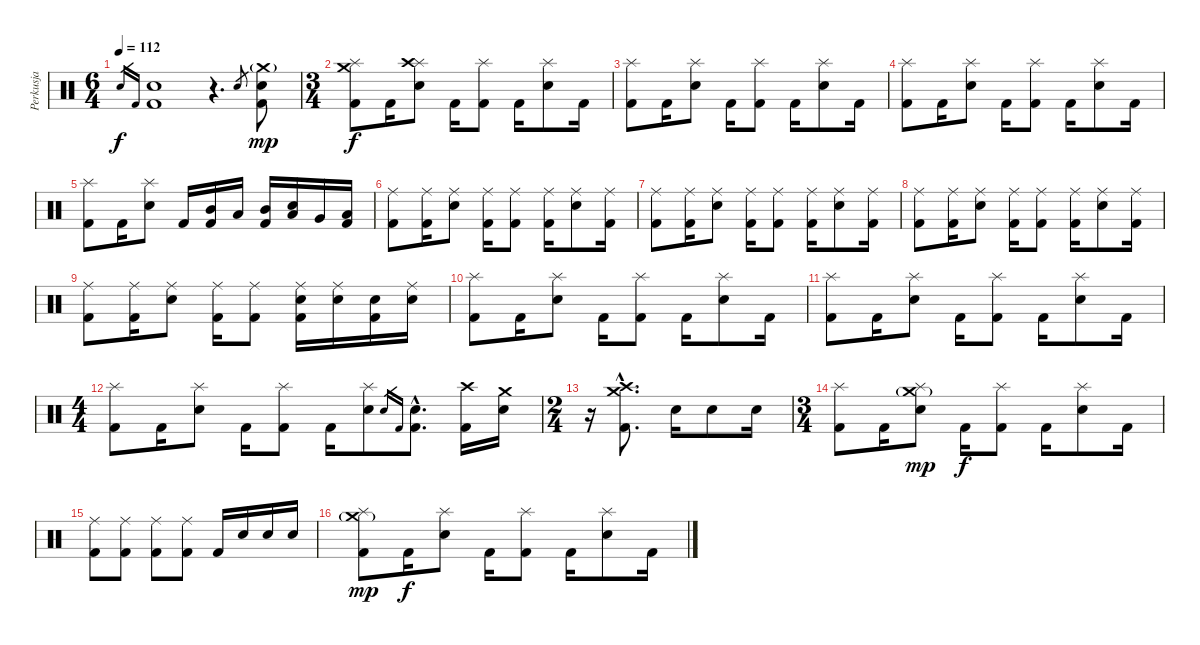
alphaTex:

\track ("Perkusja" "Perkusja") {instrument percussion}
\staff {score}
\articulation defaults
\ts (6 4)
\tempo 112
\clef neutral
\ks c "Electric Snare (hit)".16{gr dy f} "Kick (hit) 2".16{gr}
("Electric Snare (hit)" "Kick (hit) 2").1 r.4{d} "Electric Snare (hit)".8{gr} ("Crash medium (hit)"{g} "Electric Snare (hit)" "Kick (hit) 2").8{dy mp} |
\ts (3 4)
("Splash (hit)" "Crash medium (hit)" "Kick (hit) 2").8{dy f} "Kick (hit) 2".16 ("Splash (hit)" "Crash high (hit)" "Electric Snare (hit)").8 "Kick (hit) 2".16 ("Splash (hit)" "Kick (hit) 2").8 "Kick (hit) 2".16 ("Splash (hit)" "Electric Snare (hit)").8 "Kick (hit) 2".16 |
("Splash (hit)" "Kick (hit) 2").8 "Kick (hit) 2".16 ("Splash (hit)" "Electric Snare (hit)").8 "Kick (hit) 2".16 ("Splash (hit)" "Kick (hit) 2").8 "Kick (hit) 2".16 ("Splash (hit)" "Electric Snare (hit)").8 "Kick (hit) 2".16 |
("Splash (hit)" "Kick (hit) 2").8 "Kick (hit) 2".16 ("Splash (hit)" "Electric Snare (hit)").8 "Kick (hit) 2".16 ("Splash (hit)" "Kick (hit) 2").8 "Kick (hit) 2".16 ("Splash (hit)" "Electric Snare (hit)").8 "Kick (hit) 2".16 |
("Splash (hit)" "Kick (hit) 2").8 "Kick (hit) 2".16 ("Splash (hit)" "Electric Snare (hit)").8 "Kick (hit) 2".16 ("Mid Tom (hit)" "Kick (hit) 2").16 "Low Tom (hit)".16 ("Mid Tom (hit)" "Kick (hit) 2").16 ("Low Tom (hit)" "Electric Snare (hit)").16 "Very Low Tom (hit)".16 ("Low Floor Tom (hit)" "Kick (hit) 2").16 |
("Ride (middle)" "Kick (hit) 2").8 ("Ride (middle)" "Kick (hit) 2").16 ("Ride (middle)" "Electric Snare (hit)").8 ("Ride (middle)" "Kick (hit) 2").16 ("Ride (middle)" "Kick (hit) 2").8 ("Ride (middle)" "Kick (hit) 2").16 ("Ride (middle)" "Electric Snare (hit)").8 ("Ride (middle)" "Kick (hit) 2").16 |
("Ride (middle)" "Kick (hit) 2").8 ("Ride (middle)" "Kick (hit) 2").16 ("Ride (middle)" "Electric Snare (hit)").8 ("Ride (middle)" "Kick (hit) 2").16 ("Ride (middle)" "Kick (hit) 2").8 ("Ride (middle)" "Kick (hit) 2").16 ("Ride (middle)" "Electric Snare (hit)").8 ("Ride (middle)" "Kick (hit) 2").16 |
("Ride (middle)" "Kick (hit) 2").8 ("Ride (middle)" "Kick (hit) 2").16 ("Ride (middle)" "Electric Snare (hit)").8 ("Ride (middle)" "Kick (hit) 2").16 ("Ride (middle)" "Kick (hit) 2").8 ("Ride (middle)" "Kick (hit) 2").16 ("Ride (middle)" "Electric Snare (hit)").8 ("Ride (middle)" "Kick (hit) 2").16 |
("Ride (middle)" "Kick (hit) 2").8 ("Ride (middle)" "Kick (hit) 2").16 ("Ride (middle)" "Electric Snare (hit)").8 ("Ride (middle)" "Kick (hit) 2").16 ("Ride (middle)" "Kick (hit) 2").8 ("Ride (middle)" "Electric Snare (hit)" "Kick (hit) 2").16 ("Ride (middle)" "Electric Snare (hit)").16 ("Electric Snare (hit)" "Kick (hit) 2").16 ("Ride (middle)" "Electric Snare (hit)").16 |
("Splash (hit)" "Kick (hit) 2").8 "Kick (hit) 2".16 ("Splash (hit)" "Electric Snare (hit)").8 "Kick (hit) 2".16 ("Splash (hit)" "Kick (hit) 2").8 "Kick (hit) 2".16 ("Splash (hit)" "Electric Snare (hit)").8 "Kick (hit) 2".16 |
("Splash (hit)" "Kick (hit) 2").8 "Kick (hit) 2".16 ("Splash (hit)" "Electric Snare (hit)").8 "Kick (hit) 2".16 ("Splash (hit)" "Kick (hit) 2").8 "Kick (hit) 2".16 ("Splash (hit)" "Electric Snare (hit)").8 "Kick (hit) 2".16 |
\ts (4 4)
("Splash (hit)" "Kick (hit) 2").8 "Kick (hit) 2".16 ("Splash (hit)" "Electric Snare (hit)").8 "Kick (hit) 2".16 ("Splash (hit)" "Kick (hit) 2").8 "Kick (hit) 2".16 ("Splash (hit)" "Electric Snare (hit)").8 "Electric Snare (hit)".16{gr} "Kick (hit) 2".16{gr} ("Electric Snare (hit)"{hac} "Kick (hit) 2"{hac}).8{d} ("Crash high (hit)" "Kick (hit) 2").16 ("Crash medium (hit)" "Electric Snare (hit)").16 |
\ts (2 4)
r.16 ("Crash high (hit)"{hac} "Crash medium (hit)"{hac} "Kick (hit) 2"{hac}).8{d} "Electric Snare (hit)".16 "Electric Snare (hit)".8 "Electric Snare (hit)".16 |
\ts (3 4)
("Splash (hit)" "Kick (hit) 2").8 "Kick (hit) 2".16 ("Splash (hit)" "Crash medium (hit)"{g} "Electric Snare (hit)").8{dy mp} "Kick (hit) 2".16{dy f} ("Splash (hit)" "Kick (hit) 2").8 "Kick (hit) 2".16 ("Splash (hit)" "Electric Snare (hit)").8 "Kick (hit) 2".16 |
("Ride (middle)" "Kick (hit) 2").8 ("Ride (middle)" "Kick (hit) 2").8 ("Ride (middle)" "Kick (hit) 2").8 ("Ride (middle)" "Kick (hit) 2").8 "Kick (hit) 2".16 "Electric Snare (hit)".16 "Electric Snare (hit)".16 "Electric Snare (hit)".16 |
("Splash (hit)" "Crash medium (hit)"{g} "Kick (hit) 2").8{dy mp} "Kick (hit) 2".16{dy f} ("Splash (hit)" "Electric Snare (hit)").8 "Kick (hit) 2".16 ("Splash (hit)" "Kick (hit) 2").8 "Kick (hit) 2".16 ("Splash (hit)" "Electric Snare (hit)").8 "Kick (hit) 2".16
